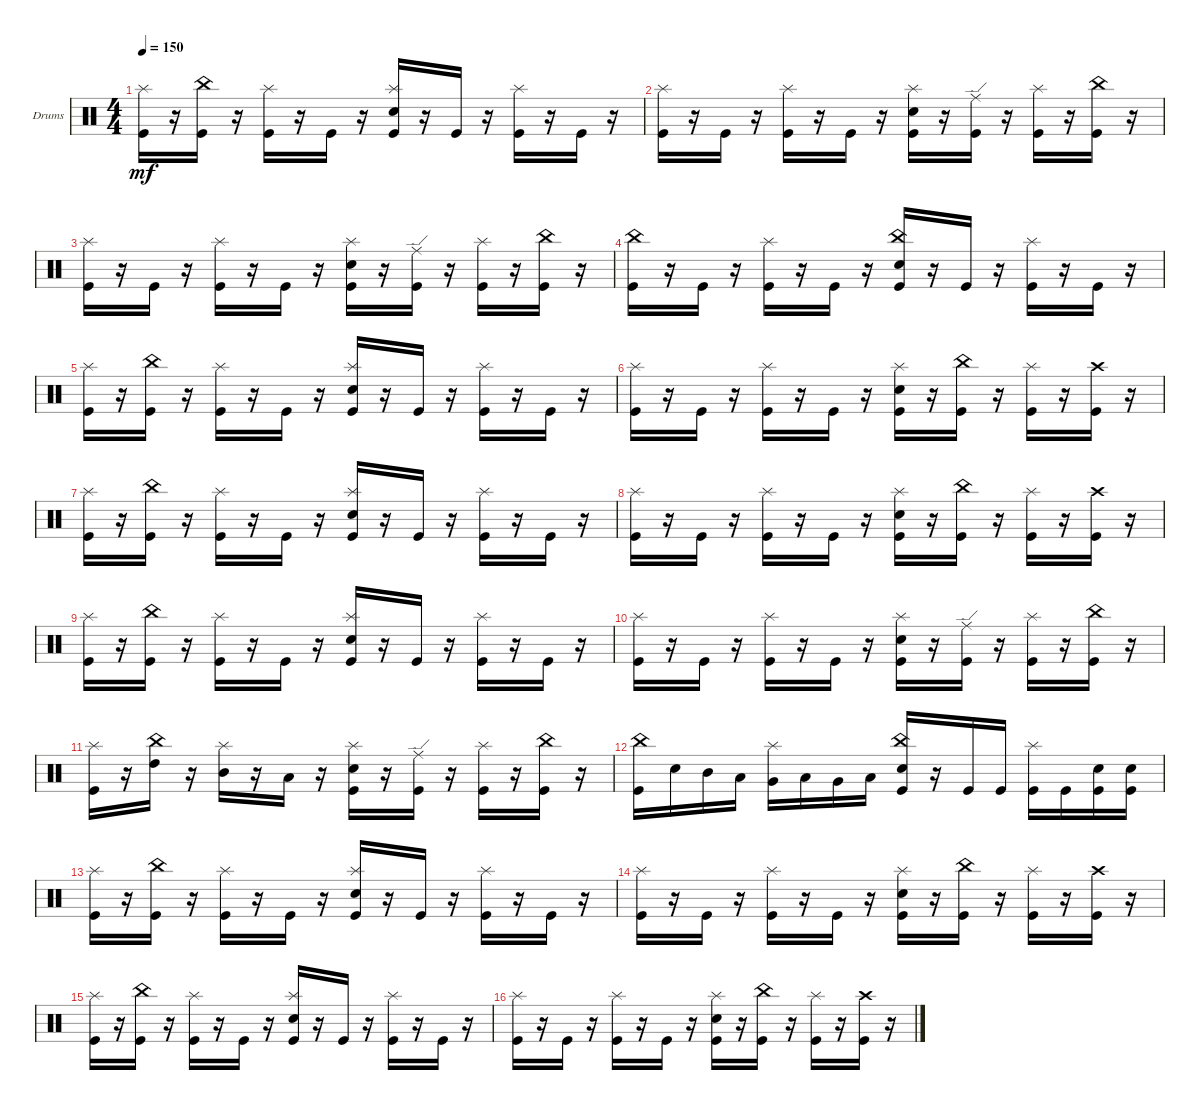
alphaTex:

\defaultSystemsLayout 4
\bracketExtendMode groupsimilarinstruments
\firstSystemTrackNameOrientation horizontal
\otherSystemsTrackNameOrientation horizontal
\track ("Drumkit" "Drums") {instrument percussion}
\staff {score}
\articulation defaults
\ts (4 4)
\tempo 150
\clef neutral
\ks c
("Kick (hit)" "Splash (hit)").16{dy mf} r.16 ("Kick (hit)" "China (hit)").16 r.16 ("Kick (hit)" "Splash (hit)").16 r.16 "Kick (hit)".16 r.16 ("Kick (hit)" "Snare (hit) 2" "Splash (hit)").16 r.16 "Kick (hit)".16 r.16 ("Kick (hit)" "Splash (hit)").16 r.16 "Kick (hit)".16 r.16 |
("Kick (hit)" "Splash (hit)").16 r.16 "Kick (hit)".16 r.16 ("Kick (hit)" "Splash (hit)").16 r.16 "Kick (hit)".16 r.16 ("Kick (hit)" "Snare (hit) 2" "Splash (hit)").16 r.16 ("Kick (hit)" "Ride (edge)").16 r.16 ("Kick (hit)" "Splash (hit)").16 r.16 ("Kick (hit)" "China (hit)").16 r.16 |
("Kick (hit)" "Splash (hit)").16 r.16 "Kick (hit)".16 r.16 ("Kick (hit)" "Splash (hit)").16 r.16 "Kick (hit)".16 r.16 ("Kick (hit)" "Snare (hit) 2" "Splash (hit)").16 r.16 ("Kick (hit)" "Ride (edge)").16 r.16 ("Kick (hit)" "Splash (hit)").16 r.16 ("Kick (hit)" "China (hit)").16 r.16 |
("Kick (hit)" "China (hit)").16 r.16 "Kick (hit)".16 r.16 ("Kick (hit)" "Splash (hit)").16 r.16 "Kick (hit)".16 r.16 ("Kick (hit)" "Snare (hit) 2" "China (hit)").16 r.16 "Kick (hit)".16 r.16 ("Kick (hit)" "Splash (hit)").16 r.16 "Kick (hit)".16 r.16 |
("Kick (hit)" "Splash (hit)").16 r.16 ("Kick (hit)" "China (hit)").16 r.16 ("Kick (hit)" "Splash (hit)").16 r.16 "Kick (hit)".16 r.16 ("Kick (hit)" "Snare (hit) 2" "Splash (hit)").16 r.16 "Kick (hit)".16 r.16 ("Kick (hit)" "Splash (hit)").16 r.16 "Kick (hit)".16 r.16 |
("Kick (hit)" "Splash (hit)").16 r.16 "Kick (hit)".16 r.16 ("Kick (hit)" "Splash (hit)").16 r.16 "Kick (hit)".16 r.16 ("Kick (hit)" "Snare (hit) 2" "Splash (hit)").16 r.16 ("Kick (hit)" "China (hit)").16 r.16 ("Kick (hit)" "Splash (hit)").16 r.16 ("Kick (hit)" "Crash high (hit)").16 r.16 |
("Kick (hit)" "Splash (hit)").16 r.16 ("Kick (hit)" "China (hit)").16 r.16 ("Kick (hit)" "Splash (hit)").16 r.16 "Kick (hit)".16 r.16 ("Kick (hit)" "Snare (hit) 2" "Splash (hit)").16 r.16 "Kick (hit)".16 r.16 ("Kick (hit)" "Splash (hit)").16 r.16 "Kick (hit)".16 r.16 |
("Kick (hit)" "Splash (hit)").16 r.16 "Kick (hit)".16 r.16 ("Kick (hit)" "Splash (hit)").16 r.16 "Kick (hit)".16 r.16 ("Kick (hit)" "Snare (hit) 2" "Splash (hit)").16 r.16 ("Kick (hit)" "China (hit)").16 r.16 ("Kick (hit)" "Splash (hit)").16 r.16 ("Kick (hit)" "Crash high (hit)").16 r.16 |
("Kick (hit)" "Splash (hit)").16 r.16 ("Kick (hit)" "China (hit)").16 r.16 ("Kick (hit)" "Splash (hit)").16 r.16 "Kick (hit)".16 r.16 ("Kick (hit)" "Snare (hit) 2" "Splash (hit)").16 r.16 "Kick (hit)".16 r.16 ("Kick (hit)" "Splash (hit)").16 r.16 "Kick (hit)".16 r.16 |
("Kick (hit)" "Splash (hit)").16 r.16 "Kick (hit)".16 r.16 ("Kick (hit)" "Splash (hit)").16 r.16 "Kick (hit)".16 r.16 ("Kick (hit)" "Snare (hit) 2" "Splash (hit)").16 r.16 ("Kick (hit)" "Ride (edge)").16 r.16 ("Kick (hit)" "Splash (hit)").16 r.16 ("Kick (hit)" "China (hit)").16 r.16 |
("Kick (hit)" "Splash (hit)").16 r.16 ("China (hit)" "High Tom (hit)").16 r.16 ("Splash (hit)" "Mid Tom (hit)").16 r.16 "Low Tom (hit)".16 r.16 ("Kick (hit)" "Snare (hit) 2" "Splash (hit)").16 r.16 ("Kick (hit)" "Ride (edge)").16 r.16 ("Kick (hit)" "Splash (hit)").16 r.16 ("Kick (hit)" "China (hit)").16 r.16 |
("Kick (hit)" "China (hit)").16 "Snare (hit) 2".16 "Mid Tom (hit)".16 "Low Tom (hit)".16 ("Very Low Tom (hit)" "Splash (hit)").16 "Low Tom (hit)".16 "Very Low Tom (hit)".16 "Low Tom (hit)".16 ("Kick (hit)" "Snare (hit) 2" "China (hit)").16 r.16 "Kick (hit)".16 "Kick (hit)".16 ("Kick (hit)" "Splash (hit)").16 "Kick (hit)".16 ("Kick (hit)" "Snare (hit) 2").16 ("Kick (hit)" "Snare (hit) 2").16 |
("Kick (hit)" "Splash (hit)").16 r.16 ("Kick (hit)" "China (hit)").16 r.16 ("Kick (hit)" "Splash (hit)").16 r.16 "Kick (hit)".16 r.16 ("Kick (hit)" "Snare (hit) 2" "Splash (hit)").16 r.16 "Kick (hit)".16 r.16 ("Kick (hit)" "Splash (hit)").16 r.16 "Kick (hit)".16 r.16 |
("Kick (hit)" "Splash (hit)").16 r.16 "Kick (hit)".16 r.16 ("Kick (hit)" "Splash (hit)").16 r.16 "Kick (hit)".16 r.16 ("Kick (hit)" "Snare (hit) 2" "Splash (hit)").16 r.16 ("Kick (hit)" "China (hit)").16 r.16 ("Kick (hit)" "Splash (hit)").16 r.16 ("Kick (hit)" "Crash high (hit)").16 r.16 |
("Kick (hit)" "Splash (hit)").16 r.16 ("Kick (hit)" "China (hit)").16 r.16 ("Kick (hit)" "Splash (hit)").16 r.16 "Kick (hit)".16 r.16 ("Kick (hit)" "Snare (hit) 2" "Splash (hit)").16 r.16 "Kick (hit)".16 r.16 ("Kick (hit)" "Splash (hit)").16 r.16 "Kick (hit)".16 r.16 |
("Kick (hit)" "Splash (hit)").16 r.16 "Kick (hit)".16 r.16 ("Kick (hit)" "Splash (hit)").16 r.16 "Kick (hit)".16 r.16 ("Kick (hit)" "Snare (hit) 2" "Splash (hit)").16 r.16 ("Kick (hit)" "China (hit)").16 r.16 ("Kick (hit)" "Splash (hit)").16 r.16 ("Kick (hit)" "Crash high (hit)").16 r.16
